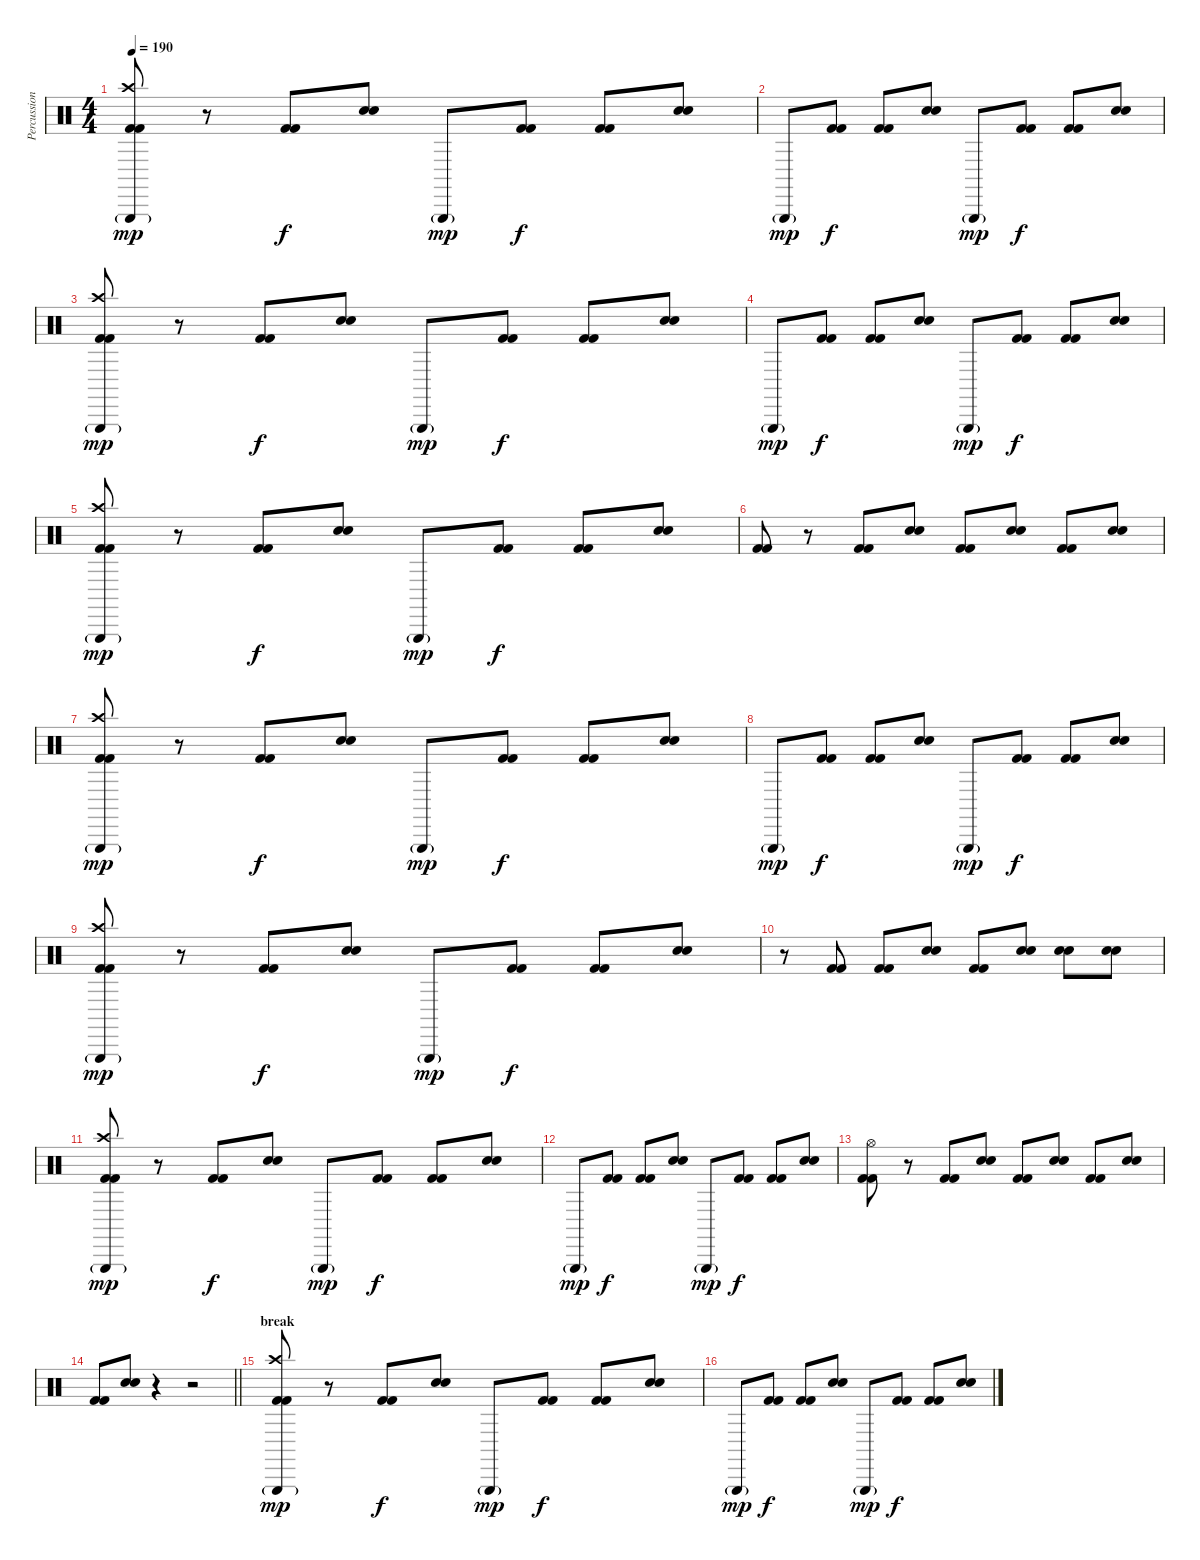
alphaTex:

\track ("Percussions" "Percussion") {instrument percussion}
\staff {score}
\articulation defaults
\ts (4 4)
\tempo 190
\clef neutral
\ks c
("Kick (hit) 2" "Kick (hit) 2" "Crash high (hit)" "Triangle (hit)"{g}).8{dy mp} r.8 ("Kick (hit) 2" "Kick (hit) 2").8{dy f} ("Snare (hit) 2" "Snare (hit) 2").8 "Triangle (hit)"{g}.8{dy mp} ("Kick (hit) 2" "Kick (hit) 2").8{dy f} ("Kick (hit) 2" "Kick (hit) 2").8 ("Snare (hit) 2" "Snare (hit) 2").8 |
"Triangle (hit)"{g}.8{dy mp} ("Kick (hit) 2" "Kick (hit) 2").8{dy f} ("Kick (hit) 2" "Kick (hit) 2").8 ("Snare (hit) 2" "Snare (hit) 2").8 "Triangle (hit)"{g}.8{dy mp} ("Kick (hit) 2" "Kick (hit) 2").8{dy f} ("Kick (hit) 2" "Kick (hit) 2").8 ("Snare (hit) 2" "Snare (hit) 2").8 |
("Kick (hit) 2" "Kick (hit) 2" "Crash high (hit)" "Triangle (hit)"{g}).8{dy mp} r.8 ("Kick (hit) 2" "Kick (hit) 2").8{dy f} ("Snare (hit) 2" "Snare (hit) 2").8 "Triangle (hit)"{g}.8{dy mp} ("Kick (hit) 2" "Kick (hit) 2").8{dy f} ("Kick (hit) 2" "Kick (hit) 2").8 ("Snare (hit) 2" "Snare (hit) 2").8 |
"Triangle (hit)"{g}.8{dy mp} ("Kick (hit) 2" "Kick (hit) 2").8{dy f} ("Kick (hit) 2" "Kick (hit) 2").8 ("Snare (hit) 2" "Snare (hit) 2").8 "Triangle (hit)"{g}.8{dy mp} ("Kick (hit) 2" "Kick (hit) 2").8{dy f} ("Kick (hit) 2" "Kick (hit) 2").8 ("Snare (hit) 2" "Snare (hit) 2").8 |
("Kick (hit) 2" "Kick (hit) 2" "Crash high (hit)" "Triangle (hit)"{g}).8{dy mp} r.8 ("Kick (hit) 2" "Kick (hit) 2").8{dy f} ("Snare (hit) 2" "Snare (hit) 2").8 "Triangle (hit)"{g}.8{dy mp} ("Kick (hit) 2" "Kick (hit) 2").8{dy f} ("Kick (hit) 2" "Kick (hit) 2").8 ("Snare (hit) 2" "Snare (hit) 2").8 |
("Kick (hit) 2" "Kick (hit) 2").8 r.8 ("Kick (hit) 2" "Kick (hit) 2").8 ("Snare (hit) 2" "Snare (hit) 2").8 ("Kick (hit) 2" "Kick (hit) 2").8 ("Snare (hit) 2" "Snare (hit) 2").8 ("Kick (hit) 2" "Kick (hit) 2").8 ("Snare (hit) 2" "Snare (hit) 2").8 |
("Kick (hit) 2" "Kick (hit) 2" "Crash high (hit)" "Triangle (hit)"{g}).8{dy mp} r.8 ("Kick (hit) 2" "Kick (hit) 2").8{dy f} ("Snare (hit) 2" "Snare (hit) 2").8 "Triangle (hit)"{g}.8{dy mp} ("Kick (hit) 2" "Kick (hit) 2").8{dy f} ("Kick (hit) 2" "Kick (hit) 2").8 ("Snare (hit) 2" "Snare (hit) 2").8 |
"Triangle (hit)"{g}.8{dy mp} ("Kick (hit) 2" "Kick (hit) 2").8{dy f} ("Kick (hit) 2" "Kick (hit) 2").8 ("Snare (hit) 2" "Snare (hit) 2").8 "Triangle (hit)"{g}.8{dy mp} ("Kick (hit) 2" "Kick (hit) 2").8{dy f} ("Kick (hit) 2" "Kick (hit) 2").8 ("Snare (hit) 2" "Snare (hit) 2").8 |
("Kick (hit) 2" "Kick (hit) 2" "Crash high (hit)" "Triangle (hit)"{g}).8{dy mp} r.8 ("Kick (hit) 2" "Kick (hit) 2").8{dy f} ("Snare (hit) 2" "Snare (hit) 2").8 "Triangle (hit)"{g}.8{dy mp} ("Kick (hit) 2" "Kick (hit) 2").8{dy f} ("Kick (hit) 2" "Kick (hit) 2").8 ("Snare (hit) 2" "Snare (hit) 2").8 |
r.8 ("Kick (hit) 2" "Kick (hit) 2").8 ("Kick (hit) 2" "Kick (hit) 2").8 ("Snare (hit) 2" "Snare (hit) 2").8 ("Kick (hit) 2" "Kick (hit) 2").8 ("Snare (hit) 2" "Snare (hit) 2").8 ("Snare (hit) 2" "Snare (hit) 2").8 ("Snare (hit) 2" "Snare (hit) 2").8 |
("Kick (hit) 2" "Kick (hit) 2" "Crash high (hit)" "Triangle (hit)"{g}).8{dy mp} r.8 ("Kick (hit) 2" "Kick (hit) 2").8{dy f} ("Snare (hit) 2" "Snare (hit) 2").8 "Triangle (hit)"{g}.8{dy mp} ("Kick (hit) 2" "Kick (hit) 2").8{dy f} ("Kick (hit) 2" "Kick (hit) 2").8 ("Snare (hit) 2" "Snare (hit) 2").8 |
"Triangle (hit)"{g}.8{dy mp} ("Kick (hit) 2" "Kick (hit) 2").8{dy f} ("Kick (hit) 2" "Kick (hit) 2").8 ("Snare (hit) 2" "Snare (hit) 2").8 "Triangle (hit)"{g}.8{dy mp} ("Kick (hit) 2" "Kick (hit) 2").8{dy f} ("Kick (hit) 2" "Kick (hit) 2").8 ("Snare (hit) 2" "Snare (hit) 2").8 |
("Kick (hit) 2" "Kick (hit) 2" "Hi-Hat (open)").8 r.8 ("Kick (hit) 2" "Kick (hit) 2").8 ("Snare (hit) 2" "Snare (hit) 2").8 ("Kick (hit) 2" "Kick (hit) 2").8 ("Snare (hit) 2" "Snare (hit) 2").8 ("Kick (hit) 2" "Kick (hit) 2").8 ("Snare (hit) 2" "Snare (hit) 2").8 |
\barLineRight lightlight
("Kick (hit) 2" "Kick (hit) 2").8 ("Snare (hit) 2" "Snare (hit) 2").8 r.4 r.2 |
\section ("" "break")
("Kick (hit) 2" "Kick (hit) 2" "Crash high (hit)" "Triangle (hit)"{g}).8{dy mp} r.8 ("Kick (hit) 2" "Kick (hit) 2").8{dy f} ("Snare (hit) 2" "Snare (hit) 2").8 "Triangle (hit)"{g}.8{dy mp} ("Kick (hit) 2" "Kick (hit) 2").8{dy f} ("Kick (hit) 2" "Kick (hit) 2").8 ("Snare (hit) 2" "Snare (hit) 2").8 |
"Triangle (hit)"{g}.8{dy mp} ("Kick (hit) 2" "Kick (hit) 2").8{dy f} ("Kick (hit) 2" "Kick (hit) 2").8 ("Snare (hit) 2" "Snare (hit) 2").8 "Triangle (hit)"{g}.8{dy mp} ("Kick (hit) 2" "Kick (hit) 2").8{dy f} ("Kick (hit) 2" "Kick (hit) 2").8 ("Snare (hit) 2" "Snare (hit) 2").8
